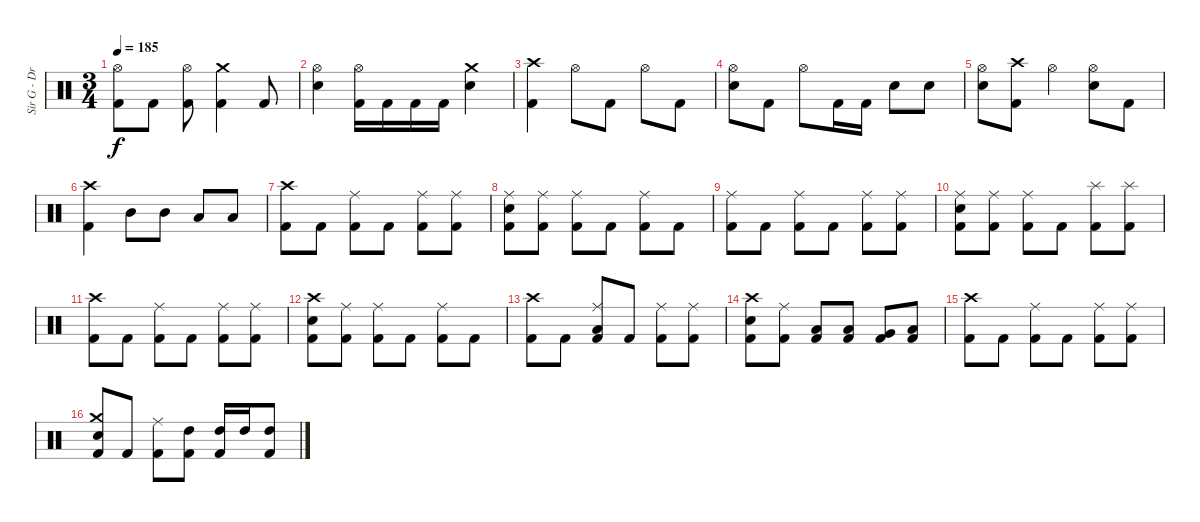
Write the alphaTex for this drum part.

\track ("Sir G - Drums" "Sir G - Dr") {instrument percussion}
\staff {score}
\articulation defaults
\ts (3 4)
\tempo 185
\clef neutral
\ks c
("Kick (hit) 2" "Hi-Hat (open)").8{dy f} "Kick (hit) 2".8 ("Kick (hit) 2" "Hi-Hat (open)").8 ("Kick (hit) 2" "Crash medium (hit)").4 "Kick (hit) 2".8 |
("Electric Snare (hit)" "Hi-Hat (open)").4 ("Kick (hit) 2" "Hi-Hat (open)").16 "Kick (hit) 2".16 "Kick (hit) 2".16 "Kick (hit) 2".16 ("Crash medium (hit)" "Electric Snare (hit)").4 |
("Kick (hit) 2" "Crash high (hit)").4 "Hi-Hat (open)".8 "Kick (hit) 2".8 "Hi-Hat (open)".8 "Kick (hit) 2".8 |
("Electric Snare (hit)" "Hi-Hat (open)").8 "Kick (hit) 2".8 "Hi-Hat (open)".8 "Kick (hit) 2".16 "Kick (hit) 2".16 "Electric Snare (hit)".8 "Electric Snare (hit)".8 |
("Electric Snare (hit)" "Hi-Hat (open)").8 ("Kick (hit) 2" "Crash high (hit)").8 "Hi-Hat (open)".4 ("Electric Snare (hit)" "Hi-Hat (open)").8 "Kick (hit) 2".8 |
("Kick (hit) 2" "Crash high (hit)").4 "Mid Tom (hit)".8 "Mid Tom (hit)".8 "Low Tom (hit)".8 "Low Tom (hit)".8 |
("Kick (hit) 2" "Crash high (hit)").8 "Kick (hit) 2".8 ("Kick (hit) 2" "Ride (middle)").8 "Kick (hit) 2".8 ("Kick (hit) 2" "Ride (middle)").8 ("Kick (hit) 2" "Ride (middle)").8 |
("Kick (hit) 2" "Electric Snare (hit)" "Ride (middle)").8 ("Kick (hit) 2" "Ride (middle)").8 ("Kick (hit) 2" "Ride (middle)").8 "Kick (hit) 2".8 ("Kick (hit) 2" "Ride (middle)").8 "Kick (hit) 2".8 |
("Kick (hit) 2" "Ride (middle)").8 "Kick (hit) 2".8 ("Kick (hit) 2" "Ride (middle)").8 "Kick (hit) 2".8 ("Kick (hit) 2" "Ride (middle)").8 ("Kick (hit) 2" "Ride (middle)").8 |
("Kick (hit) 2" "Electric Snare (hit)" "Ride (middle)").8 ("Kick (hit) 2" "Ride (middle)").8 ("Kick (hit) 2" "Ride (middle)").8 "Kick (hit) 2".8 ("Kick (hit) 2" "Splash (hit)").8 ("Kick (hit) 2" "Splash (hit)").8 |
("Kick (hit) 2" "Crash high (hit)").8 "Kick (hit) 2".8 ("Kick (hit) 2" "Ride (middle)").8 "Kick (hit) 2".8 ("Kick (hit) 2" "Ride (middle)").8 ("Kick (hit) 2" "Ride (middle)").8 |
("Kick (hit) 2" "Electric Snare (hit)" "Crash high (hit)").8 ("Kick (hit) 2" "Ride (middle)").8 ("Kick (hit) 2" "Ride (middle)").8 "Kick (hit) 2".8 ("Kick (hit) 2" "Ride (middle)").8 "Kick (hit) 2".8 |
("Kick (hit) 2" "Crash high (hit)").8 "Kick (hit) 2".8 ("Kick (hit) 2" "Ride (middle)" "Low Floor Tom (hit)").8 "Kick (hit) 2".8 ("Kick (hit) 2" "Ride (middle)").8 ("Kick (hit) 2" "Ride (middle)").8 |
("Kick (hit) 2" "Electric Snare (hit)" "Crash high (hit)").8 ("Kick (hit) 2" "Ride (middle)").8 ("Kick (hit) 2" "Low Tom (hit)").8 ("Kick (hit) 2" "Low Tom (hit)").8 ("Kick (hit) 2" "Very Low Tom (hit)").8 ("Kick (hit) 2" "Low Floor Tom (hit)").8 |
("Kick (hit) 2" "Crash high (hit)").8 "Kick (hit) 2".8 ("Kick (hit) 2" "Ride (middle)").8 "Kick (hit) 2".8 ("Kick (hit) 2" "Ride (middle)").8 ("Kick (hit) 2" "Ride (middle)").8 |
("Kick (hit) 2" "Electric Snare (hit)" "Crash medium (hit)").8 "Kick (hit) 2".8 ("Kick (hit) 2" "Ride (middle)").8 ("Kick (hit) 2" "High Tom (hit)").8 ("Kick (hit) 2" "High Tom (hit)").16 "High Tom (hit)".16 ("Kick (hit) 2" "High Tom (hit)").8
